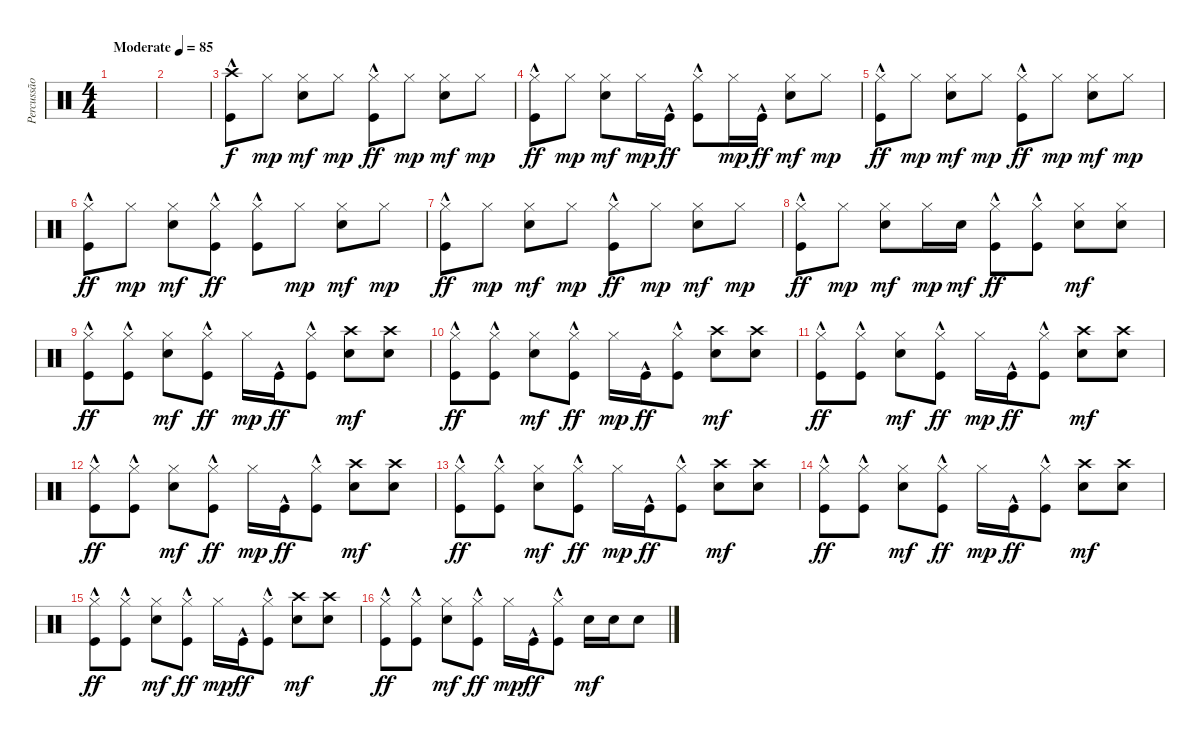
\track ("Percussão" "Percussão") {instrument percussion}
\staff {score}
\articulation defaults
\ts (4 4)
\tempo (85 "Moderate")
\clef neutral
\ks c
|
|
("Crash high (hit)" "Kick (hit)"{hac}).8 "Hi-Hat (closed)".8{dy mp} ("Hi-Hat (closed)" "Snare (hit) 2").8{dy mf} "Hi-Hat (closed)".8{dy mp} ("Hi-Hat (closed)" "Kick (hit)"{hac}).8{dy ff} "Hi-Hat (closed)".8{dy mp} ("Hi-Hat (closed)" "Snare (hit) 2").8{dy mf} "Hi-Hat (closed)".8{dy mp} |
("Hi-Hat (closed)" "Kick (hit)"{hac}).8{dy ff} "Hi-Hat (closed)".8{dy mp} ("Hi-Hat (closed)" "Snare (hit) 2").8{dy mf} "Hi-Hat (closed)".16{dy mp} "Kick (hit)"{hac}.16{dy ff} ("Hi-Hat (closed)" "Kick (hit)"{hac}).8 "Hi-Hat (closed)".16{dy mp} "Kick (hit)"{hac}.16{dy ff} ("Hi-Hat (closed)" "Snare (hit) 2").8{dy mf} "Hi-Hat (closed)".8{dy mp} |
("Hi-Hat (closed)" "Kick (hit)"{hac}).8{dy ff} "Hi-Hat (closed)".8{dy mp} ("Hi-Hat (closed)" "Snare (hit) 2").8{dy mf} "Hi-Hat (closed)".8{dy mp} ("Hi-Hat (closed)" "Kick (hit)"{hac}).8{dy ff} "Hi-Hat (closed)".8{dy mp} ("Hi-Hat (closed)" "Snare (hit) 2").8{dy mf} "Hi-Hat (closed)".8{dy mp} |
("Hi-Hat (closed)" "Kick (hit)"{hac}).8{dy ff} "Hi-Hat (closed)".8{dy mp} ("Hi-Hat (closed)" "Snare (hit) 2").8{dy mf} ("Hi-Hat (closed)" "Kick (hit)"{hac}).8{dy ff} ("Hi-Hat (closed)" "Kick (hit)"{hac}).8 "Hi-Hat (closed)".8{dy mp} ("Hi-Hat (closed)" "Snare (hit) 2").8{dy mf} "Hi-Hat (closed)".8{dy mp} |
("Hi-Hat (closed)" "Kick (hit)"{hac}).8{dy ff} "Hi-Hat (closed)".8{dy mp} ("Hi-Hat (closed)" "Snare (hit) 2").8{dy mf} "Hi-Hat (closed)".8{dy mp} ("Hi-Hat (closed)" "Kick (hit)"{hac}).8{dy ff} "Hi-Hat (closed)".8{dy mp} ("Hi-Hat (closed)" "Snare (hit) 2").8{dy mf} "Hi-Hat (closed)".8{dy mp} |
("Hi-Hat (closed)" "Kick (hit)"{hac}).8{dy ff} "Hi-Hat (closed)".8{dy mp} ("Hi-Hat (closed)" "Snare (hit) 2").8{dy mf} "Hi-Hat (closed)".16{dy mp} "Snare (hit) 2".16{dy mf} ("Hi-Hat (closed)" "Kick (hit)"{hac}).8{dy ff} ("Hi-Hat (closed)" "Kick (hit)"{hac}).8 ("Hi-Hat (closed)" "Snare (hit) 2").8{dy mf} ("Hi-Hat (closed)" "Snare (hit) 2").8 |
("Hi-Hat (closed)" "Kick (hit)"{hac}).8{dy ff} ("Hi-Hat (closed)" "Kick (hit)"{hac}).8 ("Hi-Hat (closed)" "Snare (hit) 2").8{dy mf} ("Hi-Hat (closed)" "Kick (hit)"{hac}).8{dy ff} "Hi-Hat (closed)".16{dy mp} "Kick (hit)"{hac}.16{dy ff} ("Hi-Hat (closed)" "Kick (hit)"{hac}).8 ("Crash high (hit)" "Snare (hit) 2").8{dy mf} ("Crash high (hit)" "Snare (hit) 2").8 |
("Hi-Hat (closed)" "Kick (hit)"{hac}).8{dy ff} ("Hi-Hat (closed)" "Kick (hit)"{hac}).8 ("Hi-Hat (closed)" "Snare (hit) 2").8{dy mf} ("Hi-Hat (closed)" "Kick (hit)"{hac}).8{dy ff} "Hi-Hat (closed)".16{dy mp} "Kick (hit)"{hac}.16{dy ff} ("Hi-Hat (closed)" "Kick (hit)"{hac}).8 ("Crash high (hit)" "Snare (hit) 2").8{dy mf} ("Crash high (hit)" "Snare (hit) 2").8 |
("Hi-Hat (closed)" "Kick (hit)"{hac}).8{dy ff} ("Hi-Hat (closed)" "Kick (hit)"{hac}).8 ("Hi-Hat (closed)" "Snare (hit) 2").8{dy mf} ("Hi-Hat (closed)" "Kick (hit)"{hac}).8{dy ff} "Hi-Hat (closed)".16{dy mp} "Kick (hit)"{hac}.16{dy ff} ("Hi-Hat (closed)" "Kick (hit)"{hac}).8 ("Crash high (hit)" "Snare (hit) 2").8{dy mf} ("Crash high (hit)" "Snare (hit) 2").8 |
("Hi-Hat (closed)" "Kick (hit)"{hac}).8{dy ff} ("Hi-Hat (closed)" "Kick (hit)"{hac}).8 ("Hi-Hat (closed)" "Snare (hit) 2").8{dy mf} ("Hi-Hat (closed)" "Kick (hit)"{hac}).8{dy ff} "Hi-Hat (closed)".16{dy mp} "Kick (hit)"{hac}.16{dy ff} ("Hi-Hat (closed)" "Kick (hit)"{hac}).8 ("Crash high (hit)" "Snare (hit) 2").8{dy mf} ("Crash high (hit)" "Snare (hit) 2").8 |
("Hi-Hat (closed)" "Kick (hit)"{hac}).8{dy ff} ("Hi-Hat (closed)" "Kick (hit)"{hac}).8 ("Hi-Hat (closed)" "Snare (hit) 2").8{dy mf} ("Hi-Hat (closed)" "Kick (hit)"{hac}).8{dy ff} "Hi-Hat (closed)".16{dy mp} "Kick (hit)"{hac}.16{dy ff} ("Hi-Hat (closed)" "Kick (hit)"{hac}).8 ("Crash high (hit)" "Snare (hit) 2").8{dy mf} ("Crash high (hit)" "Snare (hit) 2").8 |
("Hi-Hat (closed)" "Kick (hit)"{hac}).8{dy ff} ("Hi-Hat (closed)" "Kick (hit)"{hac}).8 ("Hi-Hat (closed)" "Snare (hit) 2").8{dy mf} ("Hi-Hat (closed)" "Kick (hit)"{hac}).8{dy ff} "Hi-Hat (closed)".16{dy mp} "Kick (hit)"{hac}.16{dy ff} ("Hi-Hat (closed)" "Kick (hit)"{hac}).8 ("Crash high (hit)" "Snare (hit) 2").8{dy mf} ("Crash high (hit)" "Snare (hit) 2").8 |
("Hi-Hat (closed)" "Kick (hit)"{hac}).8{dy ff} ("Hi-Hat (closed)" "Kick (hit)"{hac}).8 ("Hi-Hat (closed)" "Snare (hit) 2").8{dy mf} ("Hi-Hat (closed)" "Kick (hit)"{hac}).8{dy ff} "Hi-Hat (closed)".16{dy mp} "Kick (hit)"{hac}.16{dy ff} ("Hi-Hat (closed)" "Kick (hit)"{hac}).8 ("Crash high (hit)" "Snare (hit) 2").8{dy mf} ("Crash high (hit)" "Snare (hit) 2").8 |
("Hi-Hat (closed)" "Kick (hit)"{hac}).8{dy ff} ("Hi-Hat (closed)" "Kick (hit)"{hac}).8 ("Hi-Hat (closed)" "Snare (hit) 2").8{dy mf} ("Hi-Hat (closed)" "Kick (hit)"{hac}).8{dy ff} "Hi-Hat (closed)".16{dy mp} "Kick (hit)"{hac}.16{dy ff} ("Hi-Hat (closed)" "Kick (hit)"{hac}).8 "Snare (hit) 2".16{dy mf} "Snare (hit) 2".16 "Snare (hit) 2".8
